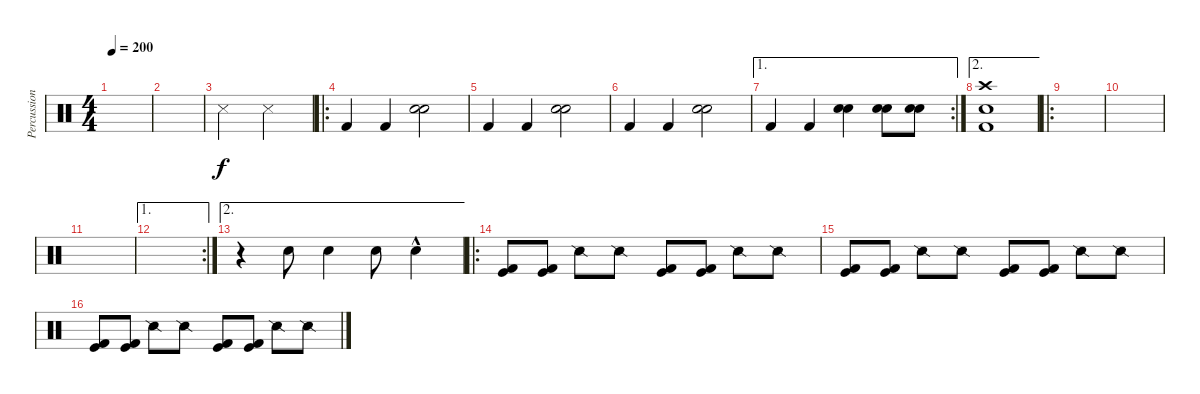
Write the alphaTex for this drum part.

\track ("Percussions" "Percussion") {instrument percussion}
\staff {score}
\articulation defaults
\ts (4 4)
\tempo 200
\clef neutral
\ks c
|
|
"Snare (side stick) 3".2 "Snare (side stick) 3".2 |
\ro "Kick (hit) 2".4 "Kick (hit) 2".4
("Snare (hit) 2" "Snare (hit) 2").2 |
"Kick (hit) 2".4 "Kick (hit) 2".4 ("Snare (hit) 2" "Snare (hit) 2").2 |
"Kick (hit) 2".4 "Kick (hit) 2".4 ("Snare (hit) 2" "Snare (hit) 2").2 |
\ae 1
\rc 2 "Kick (hit) 2".4 "Kick (hit) 2".4
("Snare (hit) 2" "Snare (hit) 2").4 ("Snare (hit) 2" "Snare (hit) 2").8 ("Snare (hit) 2" "Snare (hit) 2").8 |
\ae 2
("Snare (hit) 2" "Kick (hit) 2" "Crash high (hit)").1 |
\ro
|
|
|
\ae 1
\rc 2
|
\ae 2
r.4 "Snare (hit) 2".8 "Snare (hit) 2".4 "Snare (hit) 2".8 "Snare (hit) 2"{hac}.4 |
\ro
("Kick (hit)" "Kick (hit) 2").8 ("Kick (hit)" "Kick (hit) 2").8 "Snare (side stick) 2".8 "Snare (side stick) 2".8 ("Kick (hit)" "Kick (hit) 2").8 ("Kick (hit)" "Kick (hit) 2").8 "Snare (side stick) 2".8 "Snare (side stick) 2".8 |
("Kick (hit)" "Kick (hit) 2").8 ("Kick (hit)" "Kick (hit) 2").8 "Snare (side stick) 2".8 "Snare (side stick) 2".8 ("Kick (hit)" "Kick (hit) 2").8 ("Kick (hit)" "Kick (hit) 2").8 "Snare (side stick) 2".8 "Snare (side stick) 2".8 |
("Kick (hit)" "Kick (hit) 2").8 ("Kick (hit)" "Kick (hit) 2").8 "Snare (side stick) 2".8 "Snare (side stick) 2".8 ("Kick (hit)" "Kick (hit) 2").8 ("Kick (hit)" "Kick (hit) 2").8 "Snare (side stick) 2".8 "Snare (side stick) 2".8
